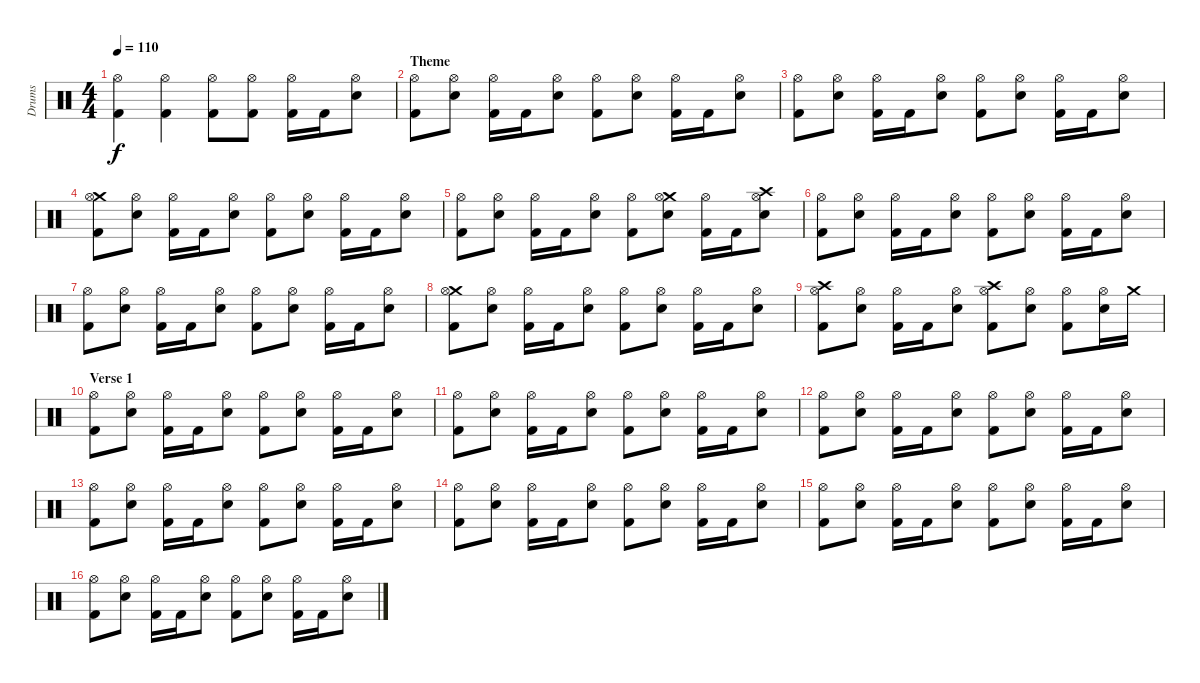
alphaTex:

\track ("Drums" "Drums") {instrument percussion}
\staff {score}
\articulation defaults
\ts (4 4)
\tempo 110
\clef neutral
\ks c
("Hi-Hat (open)" "Kick (hit) 2").4{dy f} ("Hi-Hat (open)" "Kick (hit) 2").4 ("Hi-Hat (open)" "Kick (hit) 2").8 ("Hi-Hat (open)" "Kick (hit) 2").8 ("Hi-Hat (open)" "Kick (hit) 2").16 "Kick (hit) 2".16 ("Hi-Hat (open)" "Electric Snare (hit)").8 |
\section ("" "Theme")
("Hi-Hat (open)" "Kick (hit) 2").8 ("Hi-Hat (open)" "Electric Snare (hit)").8 ("Hi-Hat (open)" "Kick (hit) 2").16 "Kick (hit) 2".16 ("Hi-Hat (open)" "Electric Snare (hit)").8 ("Hi-Hat (open)" "Kick (hit) 2").8 ("Hi-Hat (open)" "Electric Snare (hit)").8 ("Hi-Hat (open)" "Kick (hit) 2").16 "Kick (hit) 2".16 ("Hi-Hat (open)" "Electric Snare (hit)").8 |
("Hi-Hat (open)" "Kick (hit) 2").8 ("Hi-Hat (open)" "Electric Snare (hit)").8 ("Hi-Hat (open)" "Kick (hit) 2").16 "Kick (hit) 2".16 ("Hi-Hat (open)" "Electric Snare (hit)").8 ("Hi-Hat (open)" "Kick (hit) 2").8 ("Hi-Hat (open)" "Electric Snare (hit)").8 ("Hi-Hat (open)" "Kick (hit) 2").16 "Kick (hit) 2".16 ("Hi-Hat (open)" "Electric Snare (hit)").8 |
("Crash medium (hit)" "Hi-Hat (open)" "Kick (hit) 2").8 ("Hi-Hat (open)" "Electric Snare (hit)").8 ("Hi-Hat (open)" "Kick (hit) 2").16 "Kick (hit) 2".16 ("Hi-Hat (open)" "Electric Snare (hit)").8 ("Hi-Hat (open)" "Kick (hit) 2").8 ("Hi-Hat (open)" "Electric Snare (hit)").8 ("Hi-Hat (open)" "Kick (hit) 2").16 "Kick (hit) 2".16 ("Hi-Hat (open)" "Electric Snare (hit)").8 |
("Hi-Hat (open)" "Kick (hit) 2").8 ("Hi-Hat (open)" "Electric Snare (hit)").8 ("Hi-Hat (open)" "Kick (hit) 2").16 "Kick (hit) 2".16 ("Hi-Hat (open)" "Electric Snare (hit)").8 ("Hi-Hat (open)" "Kick (hit) 2").8 ("Crash medium (hit)" "Hi-Hat (open)" "Electric Snare (hit)").8 ("Hi-Hat (open)" "Kick (hit) 2").16 "Kick (hit) 2".16 ("Crash high (hit)" "Hi-Hat (open)" "Electric Snare (hit)").8 |
("Hi-Hat (open)" "Kick (hit) 2").8 ("Hi-Hat (open)" "Electric Snare (hit)").8 ("Hi-Hat (open)" "Kick (hit) 2").16 "Kick (hit) 2".16 ("Hi-Hat (open)" "Electric Snare (hit)").8 ("Hi-Hat (open)" "Kick (hit) 2").8 ("Hi-Hat (open)" "Electric Snare (hit)").8 ("Hi-Hat (open)" "Kick (hit) 2").16 "Kick (hit) 2".16 ("Hi-Hat (open)" "Electric Snare (hit)").8 |
("Hi-Hat (open)" "Kick (hit) 2").8 ("Hi-Hat (open)" "Electric Snare (hit)").8 ("Hi-Hat (open)" "Kick (hit) 2").16 "Kick (hit) 2".16 ("Hi-Hat (open)" "Electric Snare (hit)").8 ("Hi-Hat (open)" "Kick (hit) 2").8 ("Hi-Hat (open)" "Electric Snare (hit)").8 ("Hi-Hat (open)" "Kick (hit) 2").16 "Kick (hit) 2".16 ("Hi-Hat (open)" "Electric Snare (hit)").8 |
("Crash medium (hit)" "Hi-Hat (open)" "Kick (hit) 2").8 ("Hi-Hat (open)" "Electric Snare (hit)").8 ("Hi-Hat (open)" "Kick (hit) 2").16 "Kick (hit) 2".16 ("Hi-Hat (open)" "Electric Snare (hit)").8 ("Hi-Hat (open)" "Kick (hit) 2").8 ("Hi-Hat (open)" "Electric Snare (hit)").8 ("Hi-Hat (open)" "Kick (hit) 2").16 "Kick (hit) 2".16 ("Hi-Hat (open)" "Electric Snare (hit)").8 |
("Crash high (hit)" "Hi-Hat (open)" "Kick (hit) 2").8 ("Hi-Hat (open)" "Electric Snare (hit)").8 ("Hi-Hat (open)" "Kick (hit) 2").16 "Kick (hit) 2".16 ("Hi-Hat (open)" "Electric Snare (hit)").8 ("Crash high (hit)" "Hi-Hat (open)" "Kick (hit) 2").8 ("Hi-Hat (open)" "Electric Snare (hit)").8 ("Hi-Hat (open)" "Kick (hit) 2").8 ("Hi-Hat (open)" "Electric Snare (hit)").16 "Crash medium (hit)".16 |
\section ("" "Verse 1")
("Hi-Hat (open)" "Kick (hit) 2").8 ("Hi-Hat (open)" "Electric Snare (hit)").8 ("Hi-Hat (open)" "Kick (hit) 2").16 "Kick (hit) 2".16 ("Hi-Hat (open)" "Electric Snare (hit)").8 ("Hi-Hat (open)" "Kick (hit) 2").8 ("Hi-Hat (open)" "Electric Snare (hit)").8 ("Hi-Hat (open)" "Kick (hit) 2").16 "Kick (hit) 2".16 ("Hi-Hat (open)" "Electric Snare (hit)").8 |
("Hi-Hat (open)" "Kick (hit) 2").8 ("Hi-Hat (open)" "Electric Snare (hit)").8 ("Hi-Hat (open)" "Kick (hit) 2").16 "Kick (hit) 2".16 ("Hi-Hat (open)" "Electric Snare (hit)").8 ("Hi-Hat (open)" "Kick (hit) 2").8 ("Hi-Hat (open)" "Electric Snare (hit)").8 ("Hi-Hat (open)" "Kick (hit) 2").16 "Kick (hit) 2".16 ("Hi-Hat (open)" "Electric Snare (hit)").8 |
("Hi-Hat (open)" "Kick (hit) 2").8 ("Hi-Hat (open)" "Electric Snare (hit)").8 ("Hi-Hat (open)" "Kick (hit) 2").16 "Kick (hit) 2".16 ("Hi-Hat (open)" "Electric Snare (hit)").8 ("Hi-Hat (open)" "Kick (hit) 2").8 ("Hi-Hat (open)" "Electric Snare (hit)").8 ("Hi-Hat (open)" "Kick (hit) 2").16 "Kick (hit) 2".16 ("Hi-Hat (open)" "Electric Snare (hit)").8 |
("Hi-Hat (open)" "Kick (hit) 2").8 ("Hi-Hat (open)" "Electric Snare (hit)").8 ("Hi-Hat (open)" "Kick (hit) 2").16 "Kick (hit) 2".16 ("Hi-Hat (open)" "Electric Snare (hit)").8 ("Hi-Hat (open)" "Kick (hit) 2").8 ("Hi-Hat (open)" "Electric Snare (hit)").8 ("Hi-Hat (open)" "Kick (hit) 2").16 "Kick (hit) 2".16 ("Hi-Hat (open)" "Electric Snare (hit)").8 |
("Hi-Hat (open)" "Kick (hit) 2").8 ("Hi-Hat (open)" "Electric Snare (hit)").8 ("Hi-Hat (open)" "Kick (hit) 2").16 "Kick (hit) 2".16 ("Hi-Hat (open)" "Electric Snare (hit)").8 ("Hi-Hat (open)" "Kick (hit) 2").8 ("Hi-Hat (open)" "Electric Snare (hit)").8 ("Hi-Hat (open)" "Kick (hit) 2").16 "Kick (hit) 2".16 ("Hi-Hat (open)" "Electric Snare (hit)").8 |
("Hi-Hat (open)" "Kick (hit) 2").8 ("Hi-Hat (open)" "Electric Snare (hit)").8 ("Hi-Hat (open)" "Kick (hit) 2").16 "Kick (hit) 2".16 ("Hi-Hat (open)" "Electric Snare (hit)").8 ("Hi-Hat (open)" "Kick (hit) 2").8 ("Hi-Hat (open)" "Electric Snare (hit)").8 ("Hi-Hat (open)" "Kick (hit) 2").16 "Kick (hit) 2".16 ("Hi-Hat (open)" "Electric Snare (hit)").8 |
("Hi-Hat (open)" "Kick (hit) 2").8 ("Hi-Hat (open)" "Electric Snare (hit)").8 ("Hi-Hat (open)" "Kick (hit) 2").16 "Kick (hit) 2".16 ("Hi-Hat (open)" "Electric Snare (hit)").8 ("Hi-Hat (open)" "Kick (hit) 2").8 ("Hi-Hat (open)" "Electric Snare (hit)").8 ("Hi-Hat (open)" "Kick (hit) 2").16 "Kick (hit) 2".16 ("Hi-Hat (open)" "Electric Snare (hit)").8
